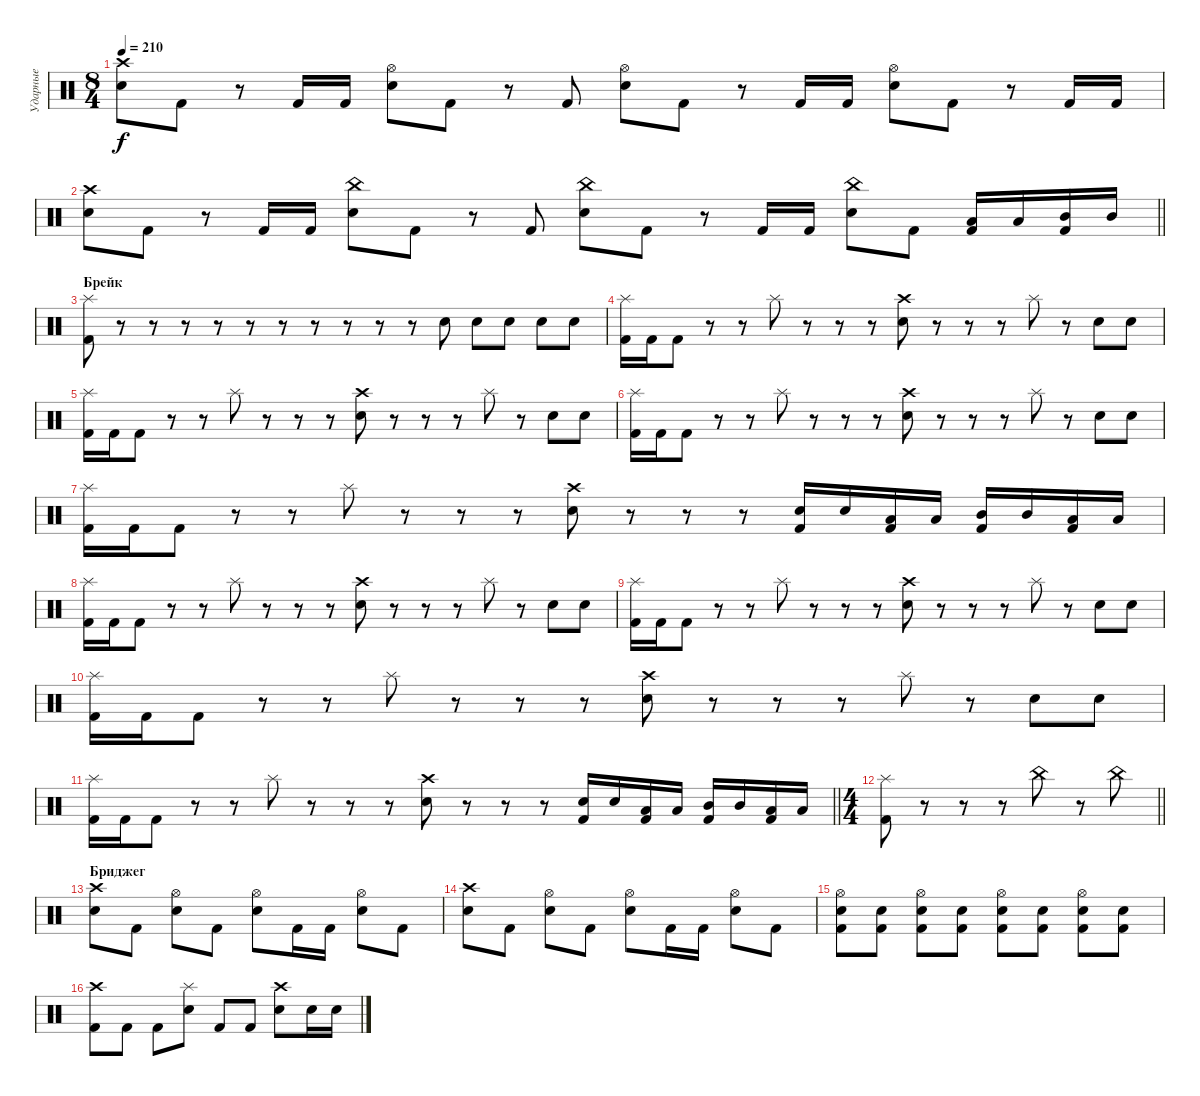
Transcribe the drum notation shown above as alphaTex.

\track ("Ударные" "Ударные") {instrument percussion}
\staff {score}
\articulation defaults
\ts (8 4)
\tempo 210
\clef neutral
\ks c
("Electric Snare (hit)" "Crash high (hit)").8{dy f} "Kick (hit) 2".8 r.8 "Kick (hit) 2".16 "Kick (hit) 2".16 ("Electric Snare (hit)" "Hi-Hat (open)").8 "Kick (hit) 2".8 r.8 "Kick (hit) 2".8 ("Electric Snare (hit)" "Hi-Hat (open)").8 "Kick (hit) 2".8 r.8 "Kick (hit) 2".16 "Kick (hit) 2".16 ("Electric Snare (hit)" "Hi-Hat (open)").8 "Kick (hit) 2".8 r.8 "Kick (hit) 2".16 "Kick (hit) 2".16 |
\barLineRight lightlight
("Electric Snare (hit)" "Crash high (hit)").8 "Kick (hit) 2".8 r.8 "Kick (hit) 2".16 "Kick (hit) 2".16 ("Electric Snare (hit)" "China (hit)").8 "Kick (hit) 2".8 r.8 "Kick (hit) 2".8 ("Electric Snare (hit)" "China (hit)").8 "Kick (hit) 2".8 r.8 "Kick (hit) 2".16 "Kick (hit) 2".16 ("Electric Snare (hit)" "China (hit)").8 "Kick (hit) 2".8 ("Kick (hit) 2" "Low Tom (hit)").16 "Low Tom (hit)".16 ("Kick (hit) 2" "Mid Tom (hit)").16 "Mid Tom (hit)".16 |
\section ("" "Брейк")
("Kick (hit) 2" "Splash (hit)").8 r.8 r.8 r.8 r.8 r.8 r.8 r.8 r.8 r.8 r.8 "Electric Snare (hit)".8 "Electric Snare (hit)".8 "Electric Snare (hit)".8 "Electric Snare (hit)".8 "Electric Snare (hit)".8 |
("Kick (hit) 2" "Splash (hit)").16 "Kick (hit) 2".16 "Kick (hit) 2".8 r.8 r.8 "Splash (hit)".8 r.8 r.8 r.8 ("Electric Snare (hit)" "Crash high (hit)").8 r.8 r.8 r.8 "Splash (hit)".8 r.8 "Electric Snare (hit)".8 "Electric Snare (hit)".8 |
("Kick (hit) 2" "Splash (hit)").16 "Kick (hit) 2".16 "Kick (hit) 2".8 r.8 r.8 "Splash (hit)".8 r.8 r.8 r.8 ("Electric Snare (hit)" "Crash high (hit)").8 r.8 r.8 r.8 "Splash (hit)".8 r.8 "Electric Snare (hit)".8 "Electric Snare (hit)".8 |
("Kick (hit) 2" "Splash (hit)").16 "Kick (hit) 2".16 "Kick (hit) 2".8 r.8 r.8 "Splash (hit)".8 r.8 r.8 r.8 ("Electric Snare (hit)" "Crash high (hit)").8 r.8 r.8 r.8 "Splash (hit)".8 r.8 "Electric Snare (hit)".8 "Electric Snare (hit)".8 |
("Kick (hit) 2" "Splash (hit)").16 "Kick (hit) 2".16 "Kick (hit) 2".8 r.8 r.8 "Splash (hit)".8 r.8 r.8 r.8 ("Electric Snare (hit)" "Crash high (hit)").8 r.8 r.8 r.8 ("Kick (hit) 2" "Electric Snare (hit)").16 "Electric Snare (hit)".16 ("Kick (hit) 2" "Low Tom (hit)").16 "Low Tom (hit)".16 ("Kick (hit) 2" "Mid Tom (hit)").16 "Mid Tom (hit)".16 ("Kick (hit) 2" "Low Tom (hit)").16 "Low Tom (hit)".16 |
("Kick (hit) 2" "Splash (hit)").16 "Kick (hit) 2".16 "Kick (hit) 2".8 r.8 r.8 "Splash (hit)".8 r.8 r.8 r.8 ("Electric Snare (hit)" "Crash high (hit)").8 r.8 r.8 r.8 "Splash (hit)".8 r.8 "Electric Snare (hit)".8 "Electric Snare (hit)".8 |
("Kick (hit) 2" "Splash (hit)").16 "Kick (hit) 2".16 "Kick (hit) 2".8 r.8 r.8 "Splash (hit)".8 r.8 r.8 r.8 ("Electric Snare (hit)" "Crash high (hit)").8 r.8 r.8 r.8 "Splash (hit)".8 r.8 "Electric Snare (hit)".8 "Electric Snare (hit)".8 |
("Kick (hit) 2" "Splash (hit)").16 "Kick (hit) 2".16 "Kick (hit) 2".8 r.8 r.8 "Splash (hit)".8 r.8 r.8 r.8 ("Electric Snare (hit)" "Crash high (hit)").8 r.8 r.8 r.8 "Splash (hit)".8 r.8 "Electric Snare (hit)".8 "Electric Snare (hit)".8 |
\barLineRight lightlight
("Kick (hit) 2" "Splash (hit)").16 "Kick (hit) 2".16 "Kick (hit) 2".8 r.8 r.8 "Splash (hit)".8 r.8 r.8 r.8 ("Electric Snare (hit)" "Crash high (hit)").8 r.8 r.8 r.8 ("Kick (hit) 2" "Electric Snare (hit)").16 "Electric Snare (hit)".16 ("Kick (hit) 2" "Low Tom (hit)").16 "Low Tom (hit)".16 ("Kick (hit) 2" "Mid Tom (hit)").16 "Mid Tom (hit)".16 ("Kick (hit) 2" "Low Tom (hit)").16 "Low Tom (hit)".16 |
\ts (4 4)
\barLineRight lightlight
("Kick (hit) 2" "Splash (hit)").8 r.8 r.8 r.8 "China (hit)".8 r.8 "China (hit)".8 |
\section ("" "Бриджег")
("Crash high (hit)" "Electric Snare (hit)").8 "Kick (hit) 2".8 ("Hi-Hat (open)" "Electric Snare (hit)").8 "Kick (hit) 2".8 ("Electric Snare (hit)" "Hi-Hat (open)").8 "Kick (hit) 2".16 "Kick (hit) 2".16 ("Electric Snare (hit)" "Hi-Hat (open)").8 "Kick (hit) 2".8 |
("Crash high (hit)" "Electric Snare (hit)").8 "Kick (hit) 2".8 ("Hi-Hat (open)" "Electric Snare (hit)").8 "Kick (hit) 2".8 ("Electric Snare (hit)" "Hi-Hat (open)").8 "Kick (hit) 2".16 "Kick (hit) 2".16 ("Electric Snare (hit)" "Hi-Hat (open)").8 "Kick (hit) 2".8 |
("Hi-Hat (open)" "Kick (hit) 2" "Electric Snare (hit)").8 ("Kick (hit) 2" "Electric Snare (hit)").8 ("Hi-Hat (open)" "Kick (hit) 2" "Electric Snare (hit)").8 ("Kick (hit) 2" "Electric Snare (hit)").8 ("Hi-Hat (open)" "Kick (hit) 2" "Electric Snare (hit)").8 ("Kick (hit) 2" "Electric Snare (hit)").8 ("Hi-Hat (open)" "Kick (hit) 2" "Electric Snare (hit)").8 ("Kick (hit) 2" "Electric Snare (hit)").8 |
("Kick (hit) 2" "Crash high (hit)").8 "Kick (hit) 2".8 "Kick (hit) 2".8 ("Electric Snare (hit)" "Splash (hit)").8 "Kick (hit) 2".8 "Kick (hit) 2".8 ("Electric Snare (hit)" "Crash high (hit)").8 "Electric Snare (hit)".16 "Electric Snare (hit)".16
